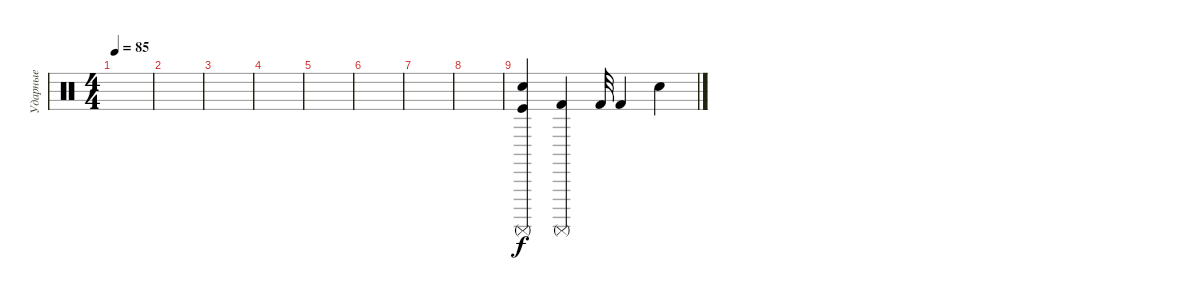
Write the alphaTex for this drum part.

\track ("Ударные" "Ударные") {instrument percussion}
\staff {score}
\articulation defaults
\ts (4 4)
\tempo 85
\clef neutral
\ks c
|
|
|
|
|
|
|
|
("Surdo (mute)" "Kick (hit)" "Snare (hit) 2").4 ("Surdo (mute)" "Kick (hit) 2").4 "Kick (hit) 2".32 "Kick (hit) 2".4 "Electric Snare (hit)".4
